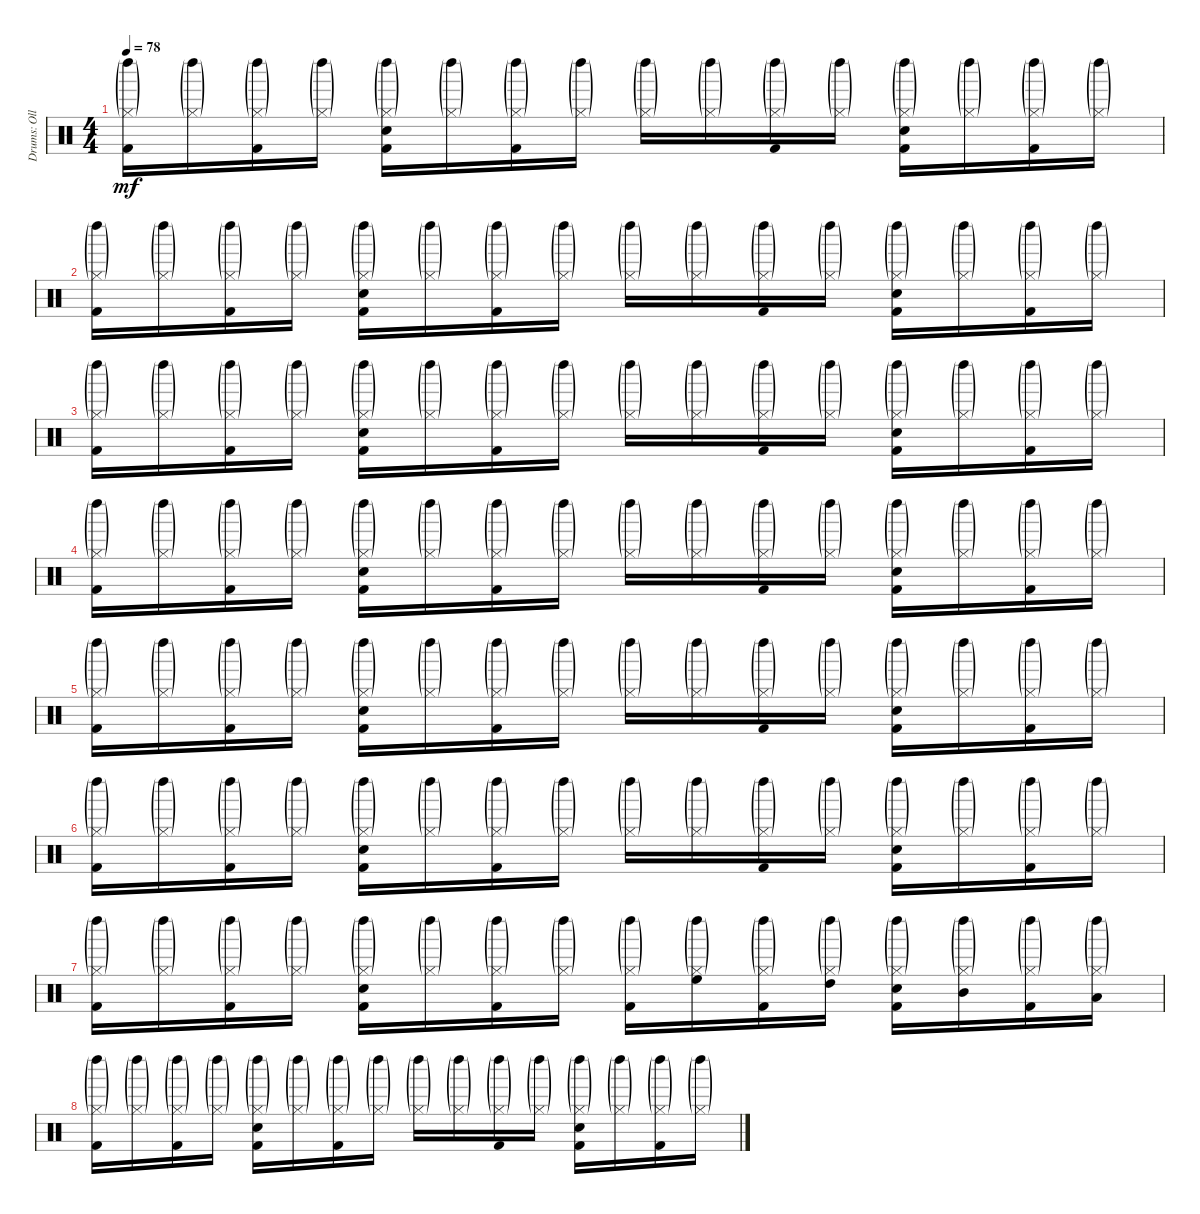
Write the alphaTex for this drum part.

\track ("Drums: Olle Romeo" "Drums: Oll") {instrument percussion}
\staff {score}
\articulation defaults
\ts (4 4)
\tempo 78
\clef neutral
\ks c
("Hi-Hat (closed)"{g} "Kick (hit) 2" "Left Maraca (hit)"{g}).16{dy mf} ("Hi-Hat (closed)"{g} "Left Maraca (hit)"{g}).16 ("Hi-Hat (closed)"{g} "Kick (hit) 2" "Left Maraca (hit)"{g}).16 ("Hi-Hat (closed)"{g} "Left Maraca (hit)"{g}).16 ("Hi-Hat (closed)"{g} "Snare (hit) 2" "Kick (hit) 2" "Left Maraca (hit)"{g}).16 ("Hi-Hat (closed)"{g} "Left Maraca (hit)"{g}).16 ("Hi-Hat (closed)"{g} "Kick (hit) 2" "Left Maraca (hit)"{g}).16 ("Hi-Hat (closed)"{g} "Left Maraca (hit)"{g}).16 ("Hi-Hat (closed)"{g} "Left Maraca (hit)"{g}).16 ("Hi-Hat (closed)"{g} "Left Maraca (hit)"{g}).16 ("Hi-Hat (closed)"{g} "Kick (hit) 2" "Left Maraca (hit)"{g}).16 ("Hi-Hat (closed)"{g} "Left Maraca (hit)"{g}).16 ("Hi-Hat (closed)"{g} "Snare (hit) 2" "Kick (hit) 2" "Left Maraca (hit)"{g}).16 ("Hi-Hat (closed)"{g} "Left Maraca (hit)"{g}).16 ("Hi-Hat (closed)"{g} "Kick (hit) 2" "Left Maraca (hit)"{g}).16 ("Hi-Hat (closed)"{g} "Left Maraca (hit)"{g}).16 |
("Hi-Hat (closed)"{g} "Kick (hit) 2" "Left Maraca (hit)"{g}).16 ("Hi-Hat (closed)"{g} "Left Maraca (hit)"{g}).16 ("Hi-Hat (closed)"{g} "Kick (hit) 2" "Left Maraca (hit)"{g}).16 ("Hi-Hat (closed)"{g} "Left Maraca (hit)"{g}).16 ("Hi-Hat (closed)"{g} "Snare (hit) 2" "Kick (hit) 2" "Left Maraca (hit)"{g}).16 ("Hi-Hat (closed)"{g} "Left Maraca (hit)"{g}).16 ("Hi-Hat (closed)"{g} "Kick (hit) 2" "Left Maraca (hit)"{g}).16 ("Hi-Hat (closed)"{g} "Left Maraca (hit)"{g}).16 ("Hi-Hat (closed)"{g} "Left Maraca (hit)"{g}).16 ("Hi-Hat (closed)"{g} "Left Maraca (hit)"{g}).16 ("Hi-Hat (closed)"{g} "Kick (hit) 2" "Left Maraca (hit)"{g}).16 ("Hi-Hat (closed)"{g} "Left Maraca (hit)"{g}).16 ("Hi-Hat (closed)"{g} "Snare (hit) 2" "Kick (hit) 2" "Left Maraca (hit)"{g}).16 ("Hi-Hat (closed)"{g} "Left Maraca (hit)"{g}).16 ("Hi-Hat (closed)"{g} "Kick (hit) 2" "Left Maraca (hit)"{g}).16 ("Hi-Hat (closed)"{g} "Left Maraca (hit)"{g}).16 |
("Hi-Hat (closed)"{g} "Kick (hit) 2" "Left Maraca (hit)"{g}).16 ("Hi-Hat (closed)"{g} "Left Maraca (hit)"{g}).16 ("Hi-Hat (closed)"{g} "Kick (hit) 2" "Left Maraca (hit)"{g}).16 ("Hi-Hat (closed)"{g} "Left Maraca (hit)"{g}).16 ("Hi-Hat (closed)"{g} "Snare (hit) 2" "Kick (hit) 2" "Left Maraca (hit)"{g}).16 ("Hi-Hat (closed)"{g} "Left Maraca (hit)"{g}).16 ("Hi-Hat (closed)"{g} "Kick (hit) 2" "Left Maraca (hit)"{g}).16 ("Hi-Hat (closed)"{g} "Left Maraca (hit)"{g}).16 ("Hi-Hat (closed)"{g} "Left Maraca (hit)"{g}).16 ("Hi-Hat (closed)"{g} "Left Maraca (hit)"{g}).16 ("Hi-Hat (closed)"{g} "Kick (hit) 2" "Left Maraca (hit)"{g}).16 ("Hi-Hat (closed)"{g} "Left Maraca (hit)"{g}).16 ("Hi-Hat (closed)"{g} "Snare (hit) 2" "Kick (hit) 2" "Left Maraca (hit)"{g}).16 ("Hi-Hat (closed)"{g} "Left Maraca (hit)"{g}).16 ("Hi-Hat (closed)"{g} "Kick (hit) 2" "Left Maraca (hit)"{g}).16 ("Hi-Hat (closed)"{g} "Left Maraca (hit)"{g}).16 |
("Hi-Hat (closed)"{g} "Kick (hit) 2" "Left Maraca (hit)"{g}).16 ("Hi-Hat (closed)"{g} "Left Maraca (hit)"{g}).16 ("Hi-Hat (closed)"{g} "Kick (hit) 2" "Left Maraca (hit)"{g}).16 ("Hi-Hat (closed)"{g} "Left Maraca (hit)"{g}).16 ("Hi-Hat (closed)"{g} "Snare (hit) 2" "Kick (hit) 2" "Left Maraca (hit)"{g}).16 ("Hi-Hat (closed)"{g} "Left Maraca (hit)"{g}).16 ("Hi-Hat (closed)"{g} "Kick (hit) 2" "Left Maraca (hit)"{g}).16 ("Hi-Hat (closed)"{g} "Left Maraca (hit)"{g}).16 ("Hi-Hat (closed)"{g} "Left Maraca (hit)"{g}).16 ("Hi-Hat (closed)"{g} "Left Maraca (hit)"{g}).16 ("Hi-Hat (closed)"{g} "Kick (hit) 2" "Left Maraca (hit)"{g}).16 ("Hi-Hat (closed)"{g} "Left Maraca (hit)"{g}).16 ("Hi-Hat (closed)"{g} "Snare (hit) 2" "Kick (hit) 2" "Left Maraca (hit)"{g}).16 ("Hi-Hat (closed)"{g} "Left Maraca (hit)"{g}).16 ("Hi-Hat (closed)"{g} "Kick (hit) 2" "Left Maraca (hit)"{g}).16 ("Hi-Hat (closed)"{g} "Left Maraca (hit)"{g}).16 |
("Hi-Hat (closed)"{g} "Kick (hit) 2" "Left Maraca (hit)"{g}).16 ("Hi-Hat (closed)"{g} "Left Maraca (hit)"{g}).16 ("Hi-Hat (closed)"{g} "Kick (hit) 2" "Left Maraca (hit)"{g}).16 ("Hi-Hat (closed)"{g} "Left Maraca (hit)"{g}).16 ("Hi-Hat (closed)"{g} "Snare (hit) 2" "Kick (hit) 2" "Left Maraca (hit)"{g}).16 ("Hi-Hat (closed)"{g} "Left Maraca (hit)"{g}).16 ("Hi-Hat (closed)"{g} "Kick (hit) 2" "Left Maraca (hit)"{g}).16 ("Hi-Hat (closed)"{g} "Left Maraca (hit)"{g}).16 ("Hi-Hat (closed)"{g} "Left Maraca (hit)"{g}).16 ("Hi-Hat (closed)"{g} "Left Maraca (hit)"{g}).16 ("Hi-Hat (closed)"{g} "Kick (hit) 2" "Left Maraca (hit)"{g}).16 ("Hi-Hat (closed)"{g} "Left Maraca (hit)"{g}).16 ("Hi-Hat (closed)"{g} "Snare (hit) 2" "Kick (hit) 2" "Left Maraca (hit)"{g}).16 ("Hi-Hat (closed)"{g} "Left Maraca (hit)"{g}).16 ("Hi-Hat (closed)"{g} "Kick (hit) 2" "Left Maraca (hit)"{g}).16 ("Hi-Hat (closed)"{g} "Left Maraca (hit)"{g}).16 |
("Hi-Hat (closed)"{g} "Kick (hit) 2" "Left Maraca (hit)"{g}).16 ("Hi-Hat (closed)"{g} "Left Maraca (hit)"{g}).16 ("Hi-Hat (closed)"{g} "Kick (hit) 2" "Left Maraca (hit)"{g}).16 ("Hi-Hat (closed)"{g} "Left Maraca (hit)"{g}).16 ("Hi-Hat (closed)"{g} "Snare (hit) 2" "Kick (hit) 2" "Left Maraca (hit)"{g}).16 ("Hi-Hat (closed)"{g} "Left Maraca (hit)"{g}).16 ("Hi-Hat (closed)"{g} "Kick (hit) 2" "Left Maraca (hit)"{g}).16 ("Hi-Hat (closed)"{g} "Left Maraca (hit)"{g}).16 ("Hi-Hat (closed)"{g} "Left Maraca (hit)"{g}).16 ("Hi-Hat (closed)"{g} "Left Maraca (hit)"{g}).16 ("Hi-Hat (closed)"{g} "Kick (hit) 2" "Left Maraca (hit)"{g}).16 ("Hi-Hat (closed)"{g} "Left Maraca (hit)"{g}).16 ("Hi-Hat (closed)"{g} "Snare (hit) 2" "Kick (hit) 2" "Left Maraca (hit)"{g}).16 ("Hi-Hat (closed)"{g} "Left Maraca (hit)"{g}).16 ("Hi-Hat (closed)"{g} "Kick (hit) 2" "Left Maraca (hit)"{g}).16 ("Hi-Hat (closed)"{g} "Left Maraca (hit)"{g}).16 |
("Hi-Hat (closed)"{g} "Kick (hit) 2" "Left Maraca (hit)"{g}).16 ("Hi-Hat (closed)"{g} "Left Maraca (hit)"{g}).16 ("Hi-Hat (closed)"{g} "Kick (hit) 2" "Left Maraca (hit)"{g}).16 ("Hi-Hat (closed)"{g} "Left Maraca (hit)"{g}).16 ("Hi-Hat (closed)"{g} "Snare (hit) 2" "Kick (hit) 2" "Left Maraca (hit)"{g}).16 ("Hi-Hat (closed)"{g} "Left Maraca (hit)"{g}).16 ("Hi-Hat (closed)"{g} "Kick (hit) 2" "Left Maraca (hit)"{g}).16 ("Hi-Hat (closed)"{g} "Left Maraca (hit)"{g}).16 ("Hi-Hat (closed)"{g} "Kick (hit) 2" "Left Maraca (hit)"{g}).16 ("Hi-Hat (closed)"{g} "High Floor Tom (hit)" "Left Maraca (hit)"{g}).16 ("Hi-Hat (closed)"{g} "Kick (hit) 2" "Left Maraca (hit)"{g}).16 ("Hi-Hat (closed)"{g} "High Tom (hit)" "Left Maraca (hit)"{g}).16 ("Hi-Hat (closed)"{g} "Snare (hit) 2" "Kick (hit) 2" "Left Maraca (hit)"{g}).16 ("Hi-Hat (closed)"{g} "Mid Tom (hit)" "Left Maraca (hit)"{g}).16 ("Hi-Hat (closed)"{g} "Kick (hit) 2" "Left Maraca (hit)"{g}).16 ("Hi-Hat (closed)"{g} "Low Tom (hit)" "Left Maraca (hit)"{g}).16 |
("Hi-Hat (closed)"{g} "Kick (hit) 2" "Left Maraca (hit)"{g}).16 ("Hi-Hat (closed)"{g} "Left Maraca (hit)"{g}).16 ("Hi-Hat (closed)"{g} "Kick (hit) 2" "Left Maraca (hit)"{g}).16 ("Hi-Hat (closed)"{g} "Left Maraca (hit)"{g}).16 ("Hi-Hat (closed)"{g} "Snare (hit) 2" "Kick (hit) 2" "Left Maraca (hit)"{g}).16 ("Hi-Hat (closed)"{g} "Left Maraca (hit)"{g}).16 ("Hi-Hat (closed)"{g} "Kick (hit) 2" "Left Maraca (hit)"{g}).16 ("Hi-Hat (closed)"{g} "Left Maraca (hit)"{g}).16 ("Hi-Hat (closed)"{g} "Left Maraca (hit)"{g}).16 ("Hi-Hat (closed)"{g} "Left Maraca (hit)"{g}).16 ("Hi-Hat (closed)"{g} "Kick (hit) 2" "Left Maraca (hit)"{g}).16 ("Hi-Hat (closed)"{g} "Left Maraca (hit)"{g}).16 ("Hi-Hat (closed)"{g} "Snare (hit) 2" "Kick (hit) 2" "Left Maraca (hit)"{g}).16 ("Hi-Hat (closed)"{g} "Left Maraca (hit)"{g}).16 ("Hi-Hat (closed)"{g} "Kick (hit) 2" "Left Maraca (hit)"{g}).16 ("Hi-Hat (closed)"{g} "Left Maraca (hit)"{g}).16
